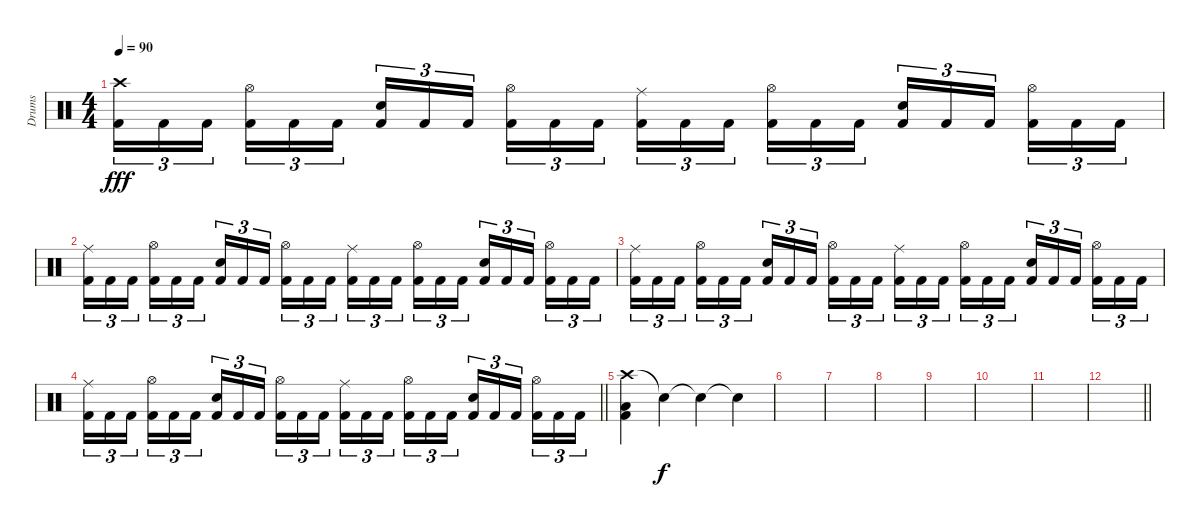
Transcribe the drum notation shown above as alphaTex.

\track ("Drums" "Drums") {instrument percussion}
\staff {score}
\articulation defaults
\ts (4 4)
\tempo 90
\clef neutral
\ks c
("Crash high (hit)" "Kick (hit) 2").16{tu (3 2) dy fff} "Kick (hit) 2".16{tu (3 2)} "Kick (hit) 2".16{tu (3 2) beam splitsecondary} ("Hi-Hat (open)" "Kick (hit) 2").16{tu (3 2)} "Kick (hit) 2".16{tu (3 2)} "Kick (hit) 2".16{tu (3 2)} ("Snare (hit) 2" "Kick (hit) 2").16{tu (3 2)} "Kick (hit) 2".16{tu (3 2)} "Kick (hit) 2".16{tu (3 2) beam splitsecondary} ("Hi-Hat (open)" "Kick (hit) 2").16{tu (3 2)} "Kick (hit) 2".16{tu (3 2)} "Kick (hit) 2".16{tu (3 2)} ("Ride (middle)" "Kick (hit) 2").16{tu (3 2)} "Kick (hit) 2".16{tu (3 2)} "Kick (hit) 2".16{tu (3 2) beam splitsecondary} ("Hi-Hat (open)" "Kick (hit) 2").16{tu (3 2)} "Kick (hit) 2".16{tu (3 2)} "Kick (hit) 2".16{tu (3 2)} ("Snare (hit) 2" "Kick (hit) 2").16{tu (3 2)} "Kick (hit) 2".16{tu (3 2)} "Kick (hit) 2".16{tu (3 2) beam splitsecondary} ("Hi-Hat (open)" "Kick (hit) 2").16{tu (3 2)} "Kick (hit) 2".16{tu (3 2)} "Kick (hit) 2".16{tu (3 2)} |
("Ride (middle)" "Kick (hit) 2").16{tu (3 2)} "Kick (hit) 2".16{tu (3 2)} "Kick (hit) 2".16{tu (3 2) beam splitsecondary} ("Hi-Hat (open)" "Kick (hit) 2").16{tu (3 2)} "Kick (hit) 2".16{tu (3 2)} "Kick (hit) 2".16{tu (3 2)} ("Snare (hit) 2" "Kick (hit) 2").16{tu (3 2)} "Kick (hit) 2".16{tu (3 2)} "Kick (hit) 2".16{tu (3 2) beam splitsecondary} ("Hi-Hat (open)" "Kick (hit) 2").16{tu (3 2)} "Kick (hit) 2".16{tu (3 2)} "Kick (hit) 2".16{tu (3 2)} ("Ride (middle)" "Kick (hit) 2").16{tu (3 2)} "Kick (hit) 2".16{tu (3 2)} "Kick (hit) 2".16{tu (3 2) beam splitsecondary} ("Hi-Hat (open)" "Kick (hit) 2").16{tu (3 2)} "Kick (hit) 2".16{tu (3 2)} "Kick (hit) 2".16{tu (3 2)} ("Snare (hit) 2" "Kick (hit) 2").16{tu (3 2)} "Kick (hit) 2".16{tu (3 2)} "Kick (hit) 2".16{tu (3 2) beam splitsecondary} ("Hi-Hat (open)" "Kick (hit) 2").16{tu (3 2)} "Kick (hit) 2".16{tu (3 2)} "Kick (hit) 2".16{tu (3 2)} |
("Ride (middle)" "Kick (hit) 2").16{tu (3 2)} "Kick (hit) 2".16{tu (3 2)} "Kick (hit) 2".16{tu (3 2) beam splitsecondary} ("Hi-Hat (open)" "Kick (hit) 2").16{tu (3 2)} "Kick (hit) 2".16{tu (3 2)} "Kick (hit) 2".16{tu (3 2)} ("Snare (hit) 2" "Kick (hit) 2").16{tu (3 2)} "Kick (hit) 2".16{tu (3 2)} "Kick (hit) 2".16{tu (3 2) beam splitsecondary} ("Hi-Hat (open)" "Kick (hit) 2").16{tu (3 2)} "Kick (hit) 2".16{tu (3 2)} "Kick (hit) 2".16{tu (3 2)} ("Ride (middle)" "Kick (hit) 2").16{tu (3 2)} "Kick (hit) 2".16{tu (3 2)} "Kick (hit) 2".16{tu (3 2) beam splitsecondary} ("Hi-Hat (open)" "Kick (hit) 2").16{tu (3 2)} "Kick (hit) 2".16{tu (3 2)} "Kick (hit) 2".16{tu (3 2)} ("Snare (hit) 2" "Kick (hit) 2").16{tu (3 2)} "Kick (hit) 2".16{tu (3 2)} "Kick (hit) 2".16{tu (3 2) beam splitsecondary} ("Hi-Hat (open)" "Kick (hit) 2").16{tu (3 2)} "Kick (hit) 2".16{tu (3 2)} "Kick (hit) 2".16{tu (3 2)} |
\barLineRight lightlight
("Ride (middle)" "Kick (hit) 2").16{tu (3 2)} "Kick (hit) 2".16{tu (3 2)} "Kick (hit) 2".16{tu (3 2) beam splitsecondary} ("Hi-Hat (open)" "Kick (hit) 2").16{tu (3 2)} "Kick (hit) 2".16{tu (3 2)} "Kick (hit) 2".16{tu (3 2)} ("Snare (hit) 2" "Kick (hit) 2").16{tu (3 2)} "Kick (hit) 2".16{tu (3 2)} "Kick (hit) 2".16{tu (3 2) beam splitsecondary} ("Hi-Hat (open)" "Kick (hit) 2").16{tu (3 2)} "Kick (hit) 2".16{tu (3 2)} "Kick (hit) 2".16{tu (3 2)} ("Ride (middle)" "Kick (hit) 2").16{tu (3 2)} "Kick (hit) 2".16{tu (3 2)} "Kick (hit) 2".16{tu (3 2) beam splitsecondary} ("Hi-Hat (open)" "Kick (hit) 2").16{tu (3 2)} "Kick (hit) 2".16{tu (3 2)} "Kick (hit) 2".16{tu (3 2)} ("Snare (hit) 2" "Kick (hit) 2").16{tu (3 2)} "Kick (hit) 2".16{tu (3 2)} "Kick (hit) 2".16{tu (3 2) beam splitsecondary} ("Hi-Hat (open)" "Kick (hit) 2").16{tu (3 2)} "Kick (hit) 2".16{tu (3 2)} "Kick (hit) 2".16{tu (3 2)} |
\section ("" "")
("Crash high (hit)" "Low Tom (hit)" "Kick (hit) 2").4 "Snare (hit)"{t}.4{dy f} "Snare (hit)"{t}.4 "Snare (hit)"{t}.4 |
|
|
|
|
|
|
\barLineRight lightlight
